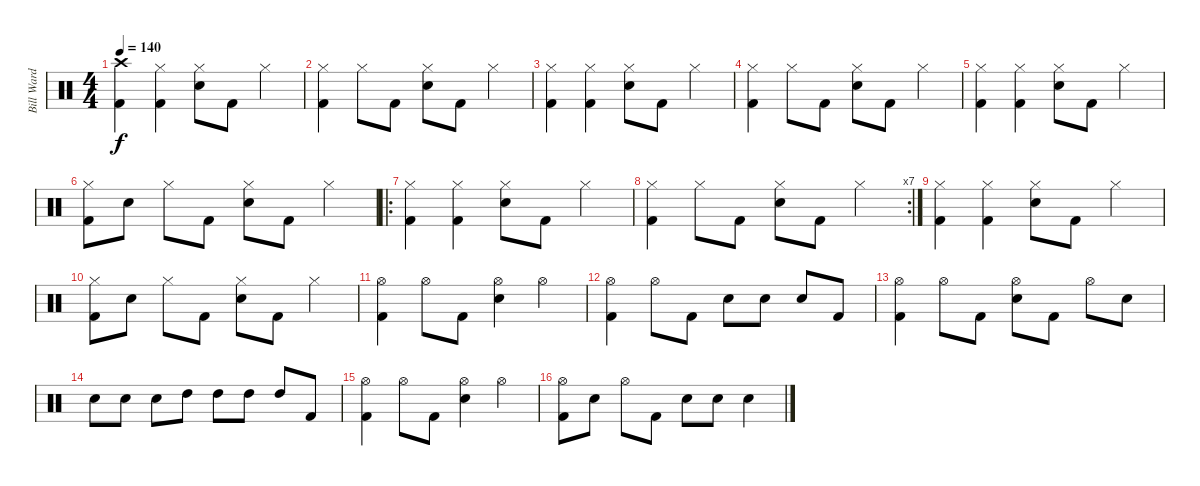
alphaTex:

\track ("Bill Ward" "Bill Ward") {instrument percussion}
\staff {score}
\articulation defaults
\ts (4 4)
\tempo 140
\clef neutral
\ks c
("Crash high (hit)" "Kick (hit) 2").4{dy f} ("Hi-Hat (closed)" "Kick (hit) 2").4 ("Hi-Hat (closed)" "Snare (hit) 2").8 "Kick (hit) 2".8 "Hi-Hat (closed)".4 |
("Hi-Hat (closed)" "Kick (hit) 2").4 "Hi-Hat (closed)".8 "Kick (hit) 2".8 ("Hi-Hat (closed)" "Snare (hit) 2").8 "Kick (hit) 2".8 "Hi-Hat (closed)".4 |
("Hi-Hat (closed)" "Kick (hit) 2").4 ("Hi-Hat (closed)" "Kick (hit) 2").4 ("Hi-Hat (closed)" "Snare (hit) 2").8 "Kick (hit) 2".8 "Hi-Hat (closed)".4 |
("Hi-Hat (closed)" "Kick (hit) 2").4 "Hi-Hat (closed)".8 "Kick (hit) 2".8 ("Hi-Hat (closed)" "Snare (hit) 2").8 "Kick (hit) 2".8 "Hi-Hat (closed)".4 |
("Hi-Hat (closed)" "Kick (hit) 2").4 ("Hi-Hat (closed)" "Kick (hit) 2").4 ("Hi-Hat (closed)" "Snare (hit) 2").8 "Kick (hit) 2".8 "Hi-Hat (closed)".4 |
("Hi-Hat (closed)" "Kick (hit) 2").8 "Snare (hit) 2".8 "Hi-Hat (closed)".8 "Kick (hit) 2".8 ("Hi-Hat (closed)" "Snare (hit) 2").8 "Kick (hit) 2".8 "Hi-Hat (closed)".4 |
\ro
("Hi-Hat (closed)" "Kick (hit) 2").4 ("Hi-Hat (closed)" "Kick (hit) 2").4 ("Hi-Hat (closed)" "Snare (hit) 2").8 "Kick (hit) 2".8 "Hi-Hat (closed)".4 |
\rc 7
("Hi-Hat (closed)" "Kick (hit) 2").4 "Hi-Hat (closed)".8 "Kick (hit) 2".8 ("Hi-Hat (closed)" "Snare (hit) 2").8 "Kick (hit) 2".8 "Hi-Hat (closed)".4 |
("Hi-Hat (closed)" "Kick (hit) 2").4 ("Hi-Hat (closed)" "Kick (hit) 2").4 ("Hi-Hat (closed)" "Snare (hit) 2").8 "Kick (hit) 2".8 "Hi-Hat (closed)".4 |
("Hi-Hat (closed)" "Kick (hit) 2").8 "Snare (hit) 2".8 "Hi-Hat (closed)".8 "Kick (hit) 2".8 ("Hi-Hat (closed)" "Snare (hit) 2").8 "Kick (hit) 2".8 "Hi-Hat (closed)".4 |
("Hi-Hat (open)" "Kick (hit) 2").4 "Hi-Hat (open)".8 "Kick (hit) 2".8 ("Hi-Hat (open)" "Snare (hit) 2").4 "Hi-Hat (open)".4 |
("Hi-Hat (open)" "Kick (hit) 2").4 "Hi-Hat (open)".8 "Kick (hit) 2".8 "Snare (hit) 2".8 "Snare (hit) 2".8 "Snare (hit) 2".8 "Kick (hit) 2".8 |
("Hi-Hat (open)" "Kick (hit) 2").4 "Hi-Hat (open)".8 "Kick (hit) 2".8 ("Hi-Hat (open)" "Snare (hit) 2").8 "Kick (hit) 2".8 "Hi-Hat (open)".8 "Snare (hit) 2".8 |
"Snare (hit) 2".8 "Snare (hit) 2".8 "Snare (hit) 2".8 "High Tom (hit)".8 "High Tom (hit)".8 "High Tom (hit)".8 "High Tom (hit)".8 "Kick (hit) 2".8 |
("Hi-Hat (open)" "Kick (hit) 2").4 "Hi-Hat (open)".8 "Kick (hit) 2".8 ("Hi-Hat (open)" "Snare (hit) 2").4 "Hi-Hat (open)".4 |
("Hi-Hat (open)" "Kick (hit) 2").8 "Snare (hit) 2".8 "Hi-Hat (open)".8 "Kick (hit) 2".8 "Snare (hit) 2".8 "Snare (hit) 2".8 "Snare (hit) 2".4
